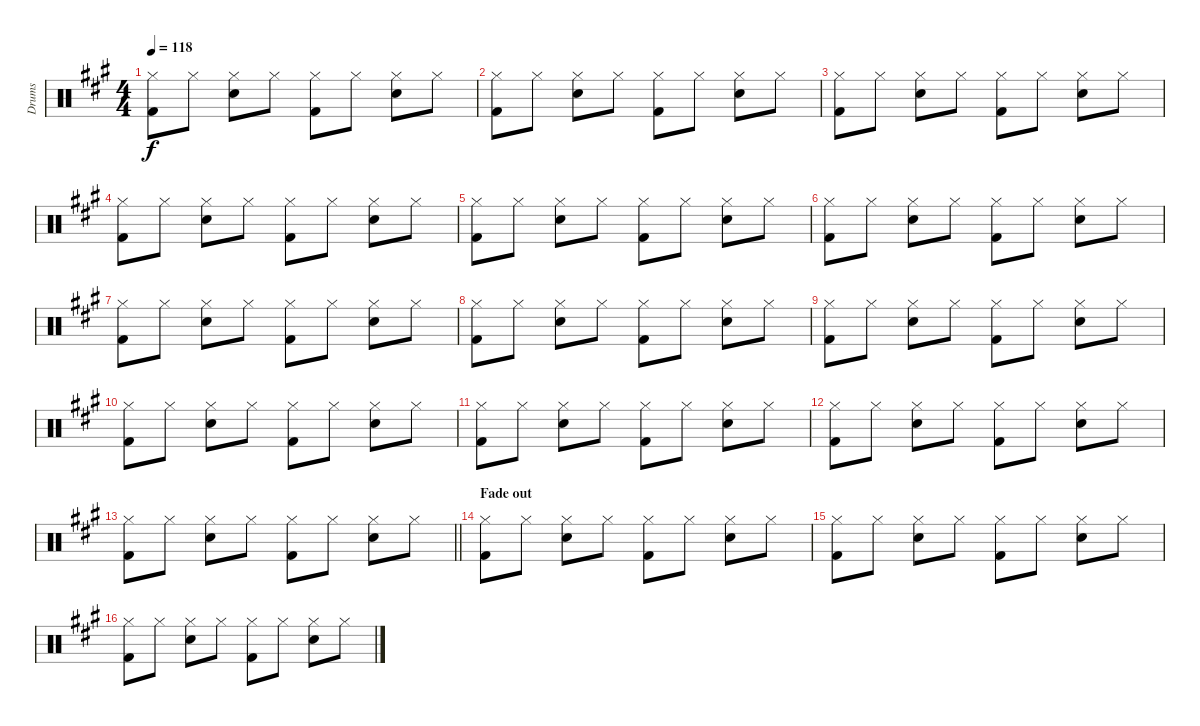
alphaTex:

\track ("Drums" "Drums") {instrument percussion}
\staff {score}
\articulation defaults
\ts (4 4)
\tempo 118
\clef neutral
\ks f#minor
("Hi-Hat (closed)" "Kick (hit) 2").8{dy f} "Hi-Hat (closed)".8 ("Hi-Hat (closed)" "Snare (hit) 2").8 "Hi-Hat (closed)".8 ("Hi-Hat (closed)" "Kick (hit) 2").8 "Hi-Hat (closed)".8 ("Hi-Hat (closed)" "Snare (hit) 2").8 "Hi-Hat (closed)".8 |
("Hi-Hat (closed)" "Kick (hit) 2").8 "Hi-Hat (closed)".8 ("Hi-Hat (closed)" "Snare (hit) 2").8 "Hi-Hat (closed)".8 ("Hi-Hat (closed)" "Kick (hit) 2").8 "Hi-Hat (closed)".8 ("Hi-Hat (closed)" "Snare (hit) 2").8 "Hi-Hat (closed)".8 |
("Hi-Hat (closed)" "Kick (hit) 2").8 "Hi-Hat (closed)".8 ("Hi-Hat (closed)" "Snare (hit) 2").8 "Hi-Hat (closed)".8 ("Hi-Hat (closed)" "Kick (hit) 2").8 "Hi-Hat (closed)".8 ("Hi-Hat (closed)" "Snare (hit) 2").8 "Hi-Hat (closed)".8 |
("Hi-Hat (closed)" "Kick (hit) 2").8 "Hi-Hat (closed)".8 ("Hi-Hat (closed)" "Snare (hit) 2").8 "Hi-Hat (closed)".8 ("Hi-Hat (closed)" "Kick (hit) 2").8 "Hi-Hat (closed)".8 ("Hi-Hat (closed)" "Snare (hit) 2").8 "Hi-Hat (closed)".8 |
("Hi-Hat (closed)" "Kick (hit) 2").8 "Hi-Hat (closed)".8 ("Hi-Hat (closed)" "Snare (hit) 2").8 "Hi-Hat (closed)".8 ("Hi-Hat (closed)" "Kick (hit) 2").8 "Hi-Hat (closed)".8 ("Hi-Hat (closed)" "Snare (hit) 2").8 "Hi-Hat (closed)".8 |
("Hi-Hat (closed)" "Kick (hit) 2").8 "Hi-Hat (closed)".8 ("Hi-Hat (closed)" "Snare (hit) 2").8 "Hi-Hat (closed)".8 ("Hi-Hat (closed)" "Kick (hit) 2").8 "Hi-Hat (closed)".8 ("Hi-Hat (closed)" "Snare (hit) 2").8 "Hi-Hat (closed)".8 |
("Hi-Hat (closed)" "Kick (hit) 2").8 "Hi-Hat (closed)".8 ("Hi-Hat (closed)" "Snare (hit) 2").8 "Hi-Hat (closed)".8 ("Hi-Hat (closed)" "Kick (hit) 2").8 "Hi-Hat (closed)".8 ("Hi-Hat (closed)" "Snare (hit) 2").8 "Hi-Hat (closed)".8 |
("Hi-Hat (closed)" "Kick (hit) 2").8 "Hi-Hat (closed)".8 ("Hi-Hat (closed)" "Snare (hit) 2").8 "Hi-Hat (closed)".8 ("Hi-Hat (closed)" "Kick (hit) 2").8 "Hi-Hat (closed)".8 ("Hi-Hat (closed)" "Snare (hit) 2").8 "Hi-Hat (closed)".8 |
("Hi-Hat (closed)" "Kick (hit) 2").8 "Hi-Hat (closed)".8 ("Hi-Hat (closed)" "Snare (hit) 2").8 "Hi-Hat (closed)".8 ("Hi-Hat (closed)" "Kick (hit) 2").8 "Hi-Hat (closed)".8 ("Hi-Hat (closed)" "Snare (hit) 2").8 "Hi-Hat (closed)".8 |
("Hi-Hat (closed)" "Kick (hit) 2").8 "Hi-Hat (closed)".8 ("Hi-Hat (closed)" "Snare (hit) 2").8 "Hi-Hat (closed)".8 ("Hi-Hat (closed)" "Kick (hit) 2").8 "Hi-Hat (closed)".8 ("Hi-Hat (closed)" "Snare (hit) 2").8 "Hi-Hat (closed)".8 |
("Hi-Hat (closed)" "Kick (hit) 2").8 "Hi-Hat (closed)".8 ("Hi-Hat (closed)" "Snare (hit) 2").8 "Hi-Hat (closed)".8 ("Hi-Hat (closed)" "Kick (hit) 2").8 "Hi-Hat (closed)".8 ("Hi-Hat (closed)" "Snare (hit) 2").8 "Hi-Hat (closed)".8 |
("Hi-Hat (closed)" "Kick (hit) 2").8 "Hi-Hat (closed)".8 ("Hi-Hat (closed)" "Snare (hit) 2").8 "Hi-Hat (closed)".8 ("Hi-Hat (closed)" "Kick (hit) 2").8 "Hi-Hat (closed)".8 ("Hi-Hat (closed)" "Snare (hit) 2").8 "Hi-Hat (closed)".8 |
\barLineRight lightlight
("Hi-Hat (closed)" "Kick (hit) 2").8 "Hi-Hat (closed)".8 ("Hi-Hat (closed)" "Snare (hit) 2").8 "Hi-Hat (closed)".8 ("Hi-Hat (closed)" "Kick (hit) 2").8 "Hi-Hat (closed)".8 ("Hi-Hat (closed)" "Snare (hit) 2").8 "Hi-Hat (closed)".8 |
\section ("" "Fade out")
("Hi-Hat (closed)" "Kick (hit) 2").8{volume 0} "Hi-Hat (closed)".8 ("Hi-Hat (closed)" "Snare (hit) 2").8 "Hi-Hat (closed)".8 ("Hi-Hat (closed)" "Kick (hit) 2").8 "Hi-Hat (closed)".8 ("Hi-Hat (closed)" "Snare (hit) 2").8 "Hi-Hat (closed)".8 |
("Hi-Hat (closed)" "Kick (hit) 2").8 "Hi-Hat (closed)".8 ("Hi-Hat (closed)" "Snare (hit) 2").8 "Hi-Hat (closed)".8 ("Hi-Hat (closed)" "Kick (hit) 2").8 "Hi-Hat (closed)".8 ("Hi-Hat (closed)" "Snare (hit) 2").8 "Hi-Hat (closed)".8 |
("Hi-Hat (closed)" "Kick (hit) 2").8 "Hi-Hat (closed)".8 ("Hi-Hat (closed)" "Snare (hit) 2").8 "Hi-Hat (closed)".8 ("Hi-Hat (closed)" "Kick (hit) 2").8 "Hi-Hat (closed)".8 ("Hi-Hat (closed)" "Snare (hit) 2").8 "Hi-Hat (closed)".8
